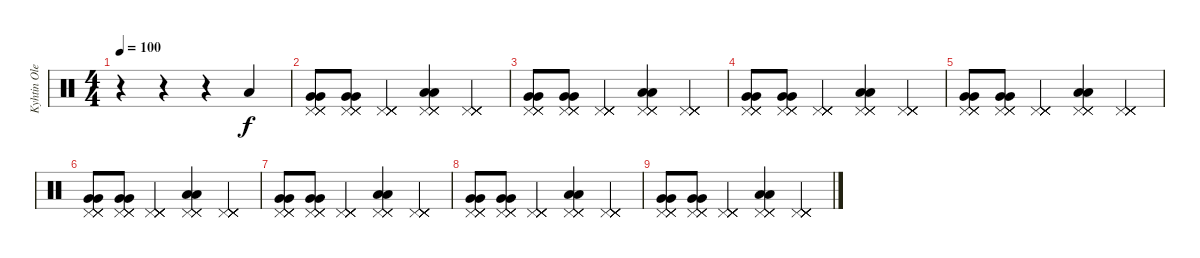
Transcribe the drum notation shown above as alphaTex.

\track ("Kyhtin Oleksandr" "Kyhtin Ole") {instrument percussion}
\staff {score}
\articulation defaults
\ts (4 4)
\tempo 100
\clef neutral
\ks c
r.4{dy f} r.4 r.4 "Low Floor Tom (hit)".4 |
("Pedal Hi-Hat (hit)" "Pedal Hi-Hat (hit)" "Pedal Hi-Hat (hit)" "Pedal Hi-Hat (hit)" "Very Low Tom (hit)" "Very Low Tom (hit)").8 ("Pedal Hi-Hat (hit)" "Pedal Hi-Hat (hit)" "Pedal Hi-Hat (hit)" "Pedal Hi-Hat (hit)" "Very Low Tom (hit)" "Very Low Tom (hit)").8 ("Pedal Hi-Hat (hit)" "Pedal Hi-Hat (hit)" "Pedal Hi-Hat (hit)" "Pedal Hi-Hat (hit)" "Pedal Hi-Hat (hit)" "Pedal Hi-Hat (hit)").4 ("Pedal Hi-Hat (hit)" "Pedal Hi-Hat (hit)" "Pedal Hi-Hat (hit)" "Pedal Hi-Hat (hit)" "Low Floor Tom (hit)" "Low Floor Tom (hit)").4 ("Pedal Hi-Hat (hit)" "Pedal Hi-Hat (hit)" "Pedal Hi-Hat (hit)" "Pedal Hi-Hat (hit)" "Pedal Hi-Hat (hit)" "Pedal Hi-Hat (hit)").4 |
("Pedal Hi-Hat (hit)" "Pedal Hi-Hat (hit)" "Pedal Hi-Hat (hit)" "Pedal Hi-Hat (hit)" "Very Low Tom (hit)" "Very Low Tom (hit)").8 ("Pedal Hi-Hat (hit)" "Pedal Hi-Hat (hit)" "Pedal Hi-Hat (hit)" "Pedal Hi-Hat (hit)" "Very Low Tom (hit)" "Very Low Tom (hit)").8 ("Pedal Hi-Hat (hit)" "Pedal Hi-Hat (hit)" "Pedal Hi-Hat (hit)" "Pedal Hi-Hat (hit)" "Pedal Hi-Hat (hit)" "Pedal Hi-Hat (hit)").4 ("Pedal Hi-Hat (hit)" "Pedal Hi-Hat (hit)" "Pedal Hi-Hat (hit)" "Pedal Hi-Hat (hit)" "Low Floor Tom (hit)" "Low Floor Tom (hit)").4 ("Pedal Hi-Hat (hit)" "Pedal Hi-Hat (hit)" "Pedal Hi-Hat (hit)" "Pedal Hi-Hat (hit)" "Pedal Hi-Hat (hit)" "Pedal Hi-Hat (hit)").4 |
("Pedal Hi-Hat (hit)" "Pedal Hi-Hat (hit)" "Pedal Hi-Hat (hit)" "Pedal Hi-Hat (hit)" "Very Low Tom (hit)" "Very Low Tom (hit)").8 ("Pedal Hi-Hat (hit)" "Pedal Hi-Hat (hit)" "Pedal Hi-Hat (hit)" "Pedal Hi-Hat (hit)" "Very Low Tom (hit)" "Very Low Tom (hit)").8 ("Pedal Hi-Hat (hit)" "Pedal Hi-Hat (hit)" "Pedal Hi-Hat (hit)" "Pedal Hi-Hat (hit)" "Pedal Hi-Hat (hit)" "Pedal Hi-Hat (hit)").4 ("Pedal Hi-Hat (hit)" "Pedal Hi-Hat (hit)" "Pedal Hi-Hat (hit)" "Pedal Hi-Hat (hit)" "Low Floor Tom (hit)" "Low Floor Tom (hit)").4 ("Pedal Hi-Hat (hit)" "Pedal Hi-Hat (hit)" "Pedal Hi-Hat (hit)" "Pedal Hi-Hat (hit)" "Pedal Hi-Hat (hit)" "Pedal Hi-Hat (hit)").4 |
("Pedal Hi-Hat (hit)" "Pedal Hi-Hat (hit)" "Pedal Hi-Hat (hit)" "Pedal Hi-Hat (hit)" "Very Low Tom (hit)" "Very Low Tom (hit)").8 ("Pedal Hi-Hat (hit)" "Pedal Hi-Hat (hit)" "Pedal Hi-Hat (hit)" "Pedal Hi-Hat (hit)" "Very Low Tom (hit)" "Very Low Tom (hit)").8 ("Pedal Hi-Hat (hit)" "Pedal Hi-Hat (hit)" "Pedal Hi-Hat (hit)" "Pedal Hi-Hat (hit)" "Pedal Hi-Hat (hit)" "Pedal Hi-Hat (hit)").4 ("Pedal Hi-Hat (hit)" "Pedal Hi-Hat (hit)" "Pedal Hi-Hat (hit)" "Pedal Hi-Hat (hit)" "Low Floor Tom (hit)" "Low Floor Tom (hit)").4 ("Pedal Hi-Hat (hit)" "Pedal Hi-Hat (hit)" "Pedal Hi-Hat (hit)" "Pedal Hi-Hat (hit)" "Pedal Hi-Hat (hit)" "Pedal Hi-Hat (hit)").4 |
("Pedal Hi-Hat (hit)" "Pedal Hi-Hat (hit)" "Pedal Hi-Hat (hit)" "Pedal Hi-Hat (hit)" "Very Low Tom (hit)" "Very Low Tom (hit)").8 ("Pedal Hi-Hat (hit)" "Pedal Hi-Hat (hit)" "Pedal Hi-Hat (hit)" "Pedal Hi-Hat (hit)" "Very Low Tom (hit)" "Very Low Tom (hit)").8 ("Pedal Hi-Hat (hit)" "Pedal Hi-Hat (hit)" "Pedal Hi-Hat (hit)" "Pedal Hi-Hat (hit)" "Pedal Hi-Hat (hit)" "Pedal Hi-Hat (hit)").4 ("Pedal Hi-Hat (hit)" "Pedal Hi-Hat (hit)" "Pedal Hi-Hat (hit)" "Pedal Hi-Hat (hit)" "Low Floor Tom (hit)" "Low Floor Tom (hit)").4 ("Pedal Hi-Hat (hit)" "Pedal Hi-Hat (hit)" "Pedal Hi-Hat (hit)" "Pedal Hi-Hat (hit)" "Pedal Hi-Hat (hit)" "Pedal Hi-Hat (hit)").4 |
("Pedal Hi-Hat (hit)" "Pedal Hi-Hat (hit)" "Pedal Hi-Hat (hit)" "Pedal Hi-Hat (hit)" "Very Low Tom (hit)" "Very Low Tom (hit)").8 ("Pedal Hi-Hat (hit)" "Pedal Hi-Hat (hit)" "Pedal Hi-Hat (hit)" "Pedal Hi-Hat (hit)" "Very Low Tom (hit)" "Very Low Tom (hit)").8 ("Pedal Hi-Hat (hit)" "Pedal Hi-Hat (hit)" "Pedal Hi-Hat (hit)" "Pedal Hi-Hat (hit)" "Pedal Hi-Hat (hit)" "Pedal Hi-Hat (hit)").4 ("Pedal Hi-Hat (hit)" "Pedal Hi-Hat (hit)" "Pedal Hi-Hat (hit)" "Pedal Hi-Hat (hit)" "Low Floor Tom (hit)" "Low Floor Tom (hit)").4 ("Pedal Hi-Hat (hit)" "Pedal Hi-Hat (hit)" "Pedal Hi-Hat (hit)" "Pedal Hi-Hat (hit)" "Pedal Hi-Hat (hit)" "Pedal Hi-Hat (hit)").4 |
("Pedal Hi-Hat (hit)" "Pedal Hi-Hat (hit)" "Pedal Hi-Hat (hit)" "Pedal Hi-Hat (hit)" "Very Low Tom (hit)" "Very Low Tom (hit)").8 ("Pedal Hi-Hat (hit)" "Pedal Hi-Hat (hit)" "Pedal Hi-Hat (hit)" "Pedal Hi-Hat (hit)" "Very Low Tom (hit)" "Very Low Tom (hit)").8 ("Pedal Hi-Hat (hit)" "Pedal Hi-Hat (hit)" "Pedal Hi-Hat (hit)" "Pedal Hi-Hat (hit)" "Pedal Hi-Hat (hit)" "Pedal Hi-Hat (hit)").4 ("Pedal Hi-Hat (hit)" "Pedal Hi-Hat (hit)" "Pedal Hi-Hat (hit)" "Pedal Hi-Hat (hit)" "Low Floor Tom (hit)" "Low Floor Tom (hit)").4 ("Pedal Hi-Hat (hit)" "Pedal Hi-Hat (hit)" "Pedal Hi-Hat (hit)" "Pedal Hi-Hat (hit)" "Pedal Hi-Hat (hit)" "Pedal Hi-Hat (hit)").4 |
("Pedal Hi-Hat (hit)" "Pedal Hi-Hat (hit)" "Pedal Hi-Hat (hit)" "Pedal Hi-Hat (hit)" "Very Low Tom (hit)" "Very Low Tom (hit)").8 ("Pedal Hi-Hat (hit)" "Pedal Hi-Hat (hit)" "Pedal Hi-Hat (hit)" "Pedal Hi-Hat (hit)" "Very Low Tom (hit)" "Very Low Tom (hit)").8 ("Pedal Hi-Hat (hit)" "Pedal Hi-Hat (hit)" "Pedal Hi-Hat (hit)" "Pedal Hi-Hat (hit)" "Pedal Hi-Hat (hit)" "Pedal Hi-Hat (hit)").4 ("Pedal Hi-Hat (hit)" "Pedal Hi-Hat (hit)" "Pedal Hi-Hat (hit)" "Pedal Hi-Hat (hit)" "Low Floor Tom (hit)" "Low Floor Tom (hit)").4 ("Pedal Hi-Hat (hit)" "Pedal Hi-Hat (hit)" "Pedal Hi-Hat (hit)" "Pedal Hi-Hat (hit)" "Pedal Hi-Hat (hit)" "Pedal Hi-Hat (hit)").4
